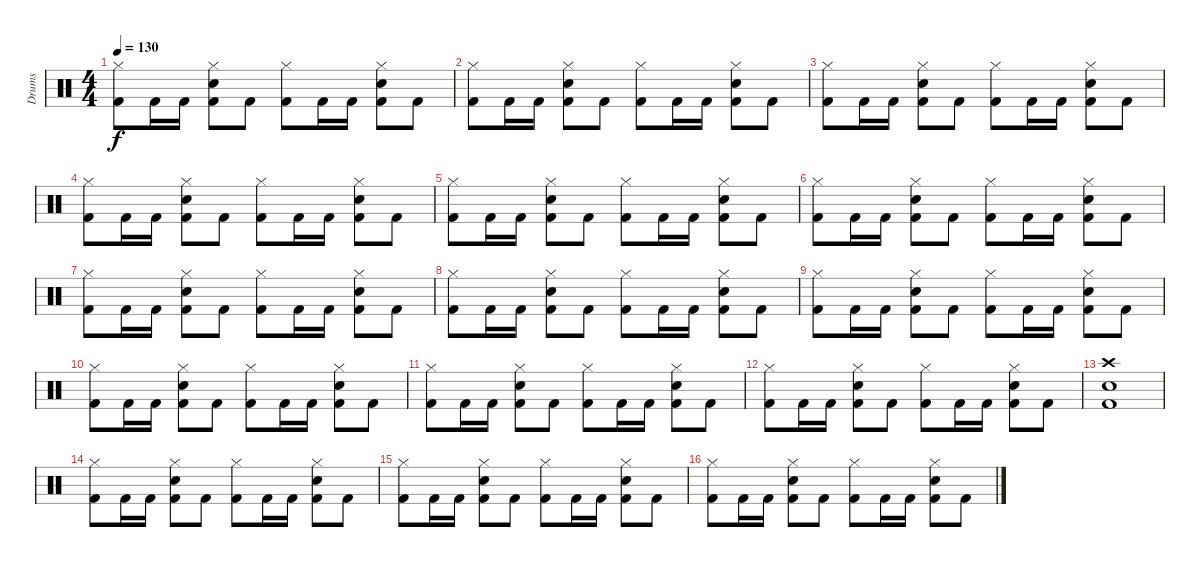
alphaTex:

\track ("Drums" "Drums") {instrument percussion}
\staff {score}
\articulation defaults
\ts (4 4)
\tempo 130
\clef neutral
\ks c
("Hi-Hat (closed)" "Kick (hit) 2").8{dy f} "Kick (hit) 2".16 "Kick (hit) 2".16 ("Electric Snare (hit)" "Hi-Hat (closed)" "Kick (hit) 2").8 "Kick (hit) 2".8 ("Hi-Hat (closed)" "Kick (hit) 2").8 "Kick (hit) 2".16 "Kick (hit) 2".16 ("Electric Snare (hit)" "Hi-Hat (closed)" "Kick (hit) 2").8 "Kick (hit) 2".8 |
("Hi-Hat (closed)" "Kick (hit) 2").8 "Kick (hit) 2".16 "Kick (hit) 2".16 ("Electric Snare (hit)" "Hi-Hat (closed)" "Kick (hit) 2").8 "Kick (hit) 2".8 ("Hi-Hat (closed)" "Kick (hit) 2").8 "Kick (hit) 2".16 "Kick (hit) 2".16 ("Electric Snare (hit)" "Hi-Hat (closed)" "Kick (hit) 2").8 "Kick (hit) 2".8 |
("Hi-Hat (closed)" "Kick (hit) 2").8 "Kick (hit) 2".16 "Kick (hit) 2".16 ("Electric Snare (hit)" "Hi-Hat (closed)" "Kick (hit) 2").8 "Kick (hit) 2".8 ("Hi-Hat (closed)" "Kick (hit) 2").8 "Kick (hit) 2".16 "Kick (hit) 2".16 ("Electric Snare (hit)" "Hi-Hat (closed)" "Kick (hit) 2").8 "Kick (hit) 2".8 |
("Hi-Hat (closed)" "Kick (hit) 2").8 "Kick (hit) 2".16 "Kick (hit) 2".16 ("Electric Snare (hit)" "Hi-Hat (closed)" "Kick (hit) 2").8 "Kick (hit) 2".8 ("Hi-Hat (closed)" "Kick (hit) 2").8 "Kick (hit) 2".16 "Kick (hit) 2".16 ("Electric Snare (hit)" "Hi-Hat (closed)" "Kick (hit) 2").8 "Kick (hit) 2".8 |
("Hi-Hat (closed)" "Kick (hit) 2").8 "Kick (hit) 2".16 "Kick (hit) 2".16 ("Electric Snare (hit)" "Hi-Hat (closed)" "Kick (hit) 2").8 "Kick (hit) 2".8 ("Hi-Hat (closed)" "Kick (hit) 2").8 "Kick (hit) 2".16 "Kick (hit) 2".16 ("Electric Snare (hit)" "Hi-Hat (closed)" "Kick (hit) 2").8 "Kick (hit) 2".8 |
("Hi-Hat (closed)" "Kick (hit) 2").8 "Kick (hit) 2".16 "Kick (hit) 2".16 ("Electric Snare (hit)" "Hi-Hat (closed)" "Kick (hit) 2").8 "Kick (hit) 2".8 ("Hi-Hat (closed)" "Kick (hit) 2").8 "Kick (hit) 2".16 "Kick (hit) 2".16 ("Electric Snare (hit)" "Hi-Hat (closed)" "Kick (hit) 2").8 "Kick (hit) 2".8 |
("Hi-Hat (closed)" "Kick (hit) 2").8 "Kick (hit) 2".16 "Kick (hit) 2".16 ("Electric Snare (hit)" "Hi-Hat (closed)" "Kick (hit) 2").8 "Kick (hit) 2".8 ("Hi-Hat (closed)" "Kick (hit) 2").8 "Kick (hit) 2".16 "Kick (hit) 2".16 ("Electric Snare (hit)" "Hi-Hat (closed)" "Kick (hit) 2").8 "Kick (hit) 2".8 |
("Hi-Hat (closed)" "Kick (hit) 2").8 "Kick (hit) 2".16 "Kick (hit) 2".16 ("Electric Snare (hit)" "Hi-Hat (closed)" "Kick (hit) 2").8 "Kick (hit) 2".8 ("Hi-Hat (closed)" "Kick (hit) 2").8 "Kick (hit) 2".16 "Kick (hit) 2".16 ("Electric Snare (hit)" "Hi-Hat (closed)" "Kick (hit) 2").8 "Kick (hit) 2".8 |
("Hi-Hat (closed)" "Kick (hit) 2").8 "Kick (hit) 2".16 "Kick (hit) 2".16 ("Electric Snare (hit)" "Hi-Hat (closed)" "Kick (hit) 2").8 "Kick (hit) 2".8 ("Hi-Hat (closed)" "Kick (hit) 2").8 "Kick (hit) 2".16 "Kick (hit) 2".16 ("Electric Snare (hit)" "Hi-Hat (closed)" "Kick (hit) 2").8 "Kick (hit) 2".8 |
("Hi-Hat (closed)" "Kick (hit) 2").8 "Kick (hit) 2".16 "Kick (hit) 2".16 ("Electric Snare (hit)" "Hi-Hat (closed)" "Kick (hit) 2").8 "Kick (hit) 2".8 ("Hi-Hat (closed)" "Kick (hit) 2").8 "Kick (hit) 2".16 "Kick (hit) 2".16 ("Electric Snare (hit)" "Hi-Hat (closed)" "Kick (hit) 2").8 "Kick (hit) 2".8 |
("Hi-Hat (closed)" "Kick (hit) 2").8 "Kick (hit) 2".16 "Kick (hit) 2".16 ("Electric Snare (hit)" "Hi-Hat (closed)" "Kick (hit) 2").8 "Kick (hit) 2".8 ("Hi-Hat (closed)" "Kick (hit) 2").8 "Kick (hit) 2".16 "Kick (hit) 2".16 ("Electric Snare (hit)" "Hi-Hat (closed)" "Kick (hit) 2").8 "Kick (hit) 2".8 |
("Hi-Hat (closed)" "Kick (hit) 2").8 "Kick (hit) 2".16 "Kick (hit) 2".16 ("Electric Snare (hit)" "Hi-Hat (closed)" "Kick (hit) 2").8 "Kick (hit) 2".8 ("Hi-Hat (closed)" "Kick (hit) 2").8 "Kick (hit) 2".16 "Kick (hit) 2".16 ("Electric Snare (hit)" "Hi-Hat (closed)" "Kick (hit) 2").8 "Kick (hit) 2".8 |
("Crash high (hit)" "Electric Snare (hit)" "Kick (hit) 2").1 |
("Hi-Hat (closed)" "Kick (hit) 2").8 "Kick (hit) 2".16 "Kick (hit) 2".16 ("Electric Snare (hit)" "Hi-Hat (closed)" "Kick (hit) 2").8 "Kick (hit) 2".8 ("Hi-Hat (closed)" "Kick (hit) 2").8 "Kick (hit) 2".16 "Kick (hit) 2".16 ("Electric Snare (hit)" "Hi-Hat (closed)" "Kick (hit) 2").8 "Kick (hit) 2".8 |
("Hi-Hat (closed)" "Kick (hit) 2").8 "Kick (hit) 2".16 "Kick (hit) 2".16 ("Electric Snare (hit)" "Hi-Hat (closed)" "Kick (hit) 2").8 "Kick (hit) 2".8 ("Hi-Hat (closed)" "Kick (hit) 2").8 "Kick (hit) 2".16 "Kick (hit) 2".16 ("Electric Snare (hit)" "Hi-Hat (closed)" "Kick (hit) 2").8 "Kick (hit) 2".8 |
("Hi-Hat (closed)" "Kick (hit) 2").8 "Kick (hit) 2".16 "Kick (hit) 2".16 ("Electric Snare (hit)" "Hi-Hat (closed)" "Kick (hit) 2").8 "Kick (hit) 2".8 ("Hi-Hat (closed)" "Kick (hit) 2").8 "Kick (hit) 2".16 "Kick (hit) 2".16 ("Electric Snare (hit)" "Hi-Hat (closed)" "Kick (hit) 2").8 "Kick (hit) 2".8
